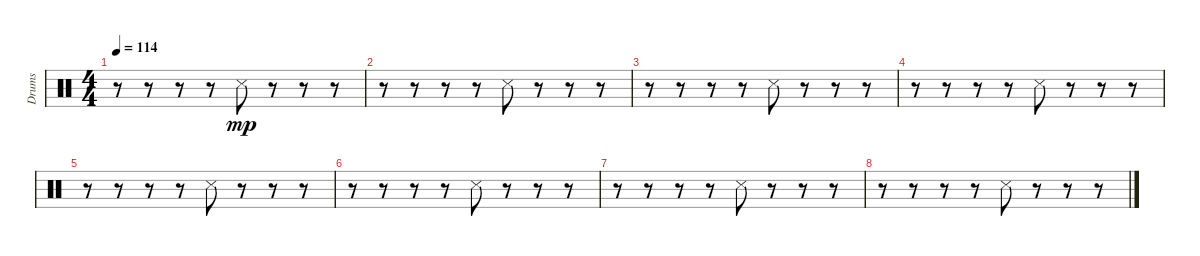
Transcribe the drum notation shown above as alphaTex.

\track ("Drums" "Drums") {instrument percussion}
\staff {score}
\articulation defaults
\ts (4 4)
\tempo 114
\clef neutral
\ks c
r.8{dy mp} r.8 r.8 r.8 "Snare (side stick) 3".8 r.8 r.8 r.8 |
r.8 r.8 r.8 r.8 "Snare (side stick) 3".8 r.8 r.8 r.8 |
r.8 r.8 r.8 r.8 "Snare (side stick) 3".8 r.8 r.8 r.8 |
r.8 r.8 r.8 r.8 "Snare (side stick) 3".8 r.8 r.8 r.8 |
r.8 r.8 r.8 r.8 "Snare (side stick) 3".8 r.8 r.8 r.8 |
r.8 r.8 r.8 r.8 "Snare (side stick) 3".8 r.8 r.8 r.8 |
r.8 r.8 r.8 r.8 "Snare (side stick) 3".8 r.8 r.8 r.8 |
r.8 r.8 r.8 r.8 "Snare (side stick) 3".8 r.8 r.8 r.8
